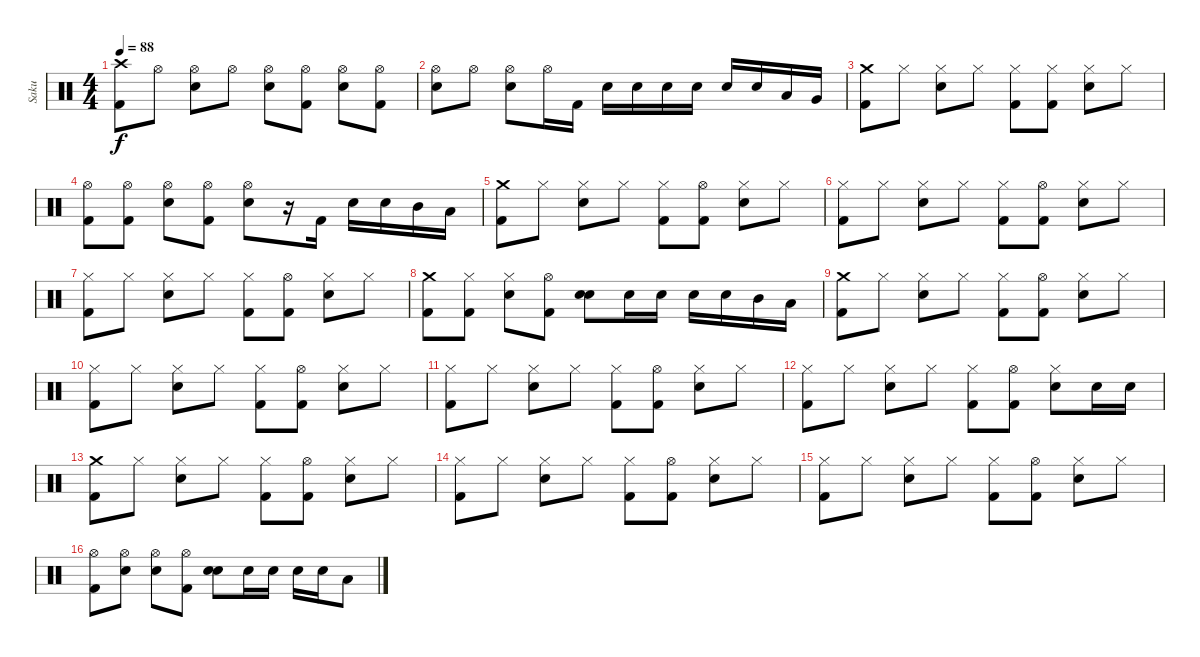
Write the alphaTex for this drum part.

\track ("Saku" "Saku") {instrument percussion}
\staff {score}
\articulation defaults
\ts (4 4)
\tempo 88
\clef neutral
\ks c
("Crash high (hit)" "Kick (hit) 2").8{dy f} "Hi-Hat (open)".8 ("Hi-Hat (open)" "Electric Snare (hit)").8 "Hi-Hat (open)".8 ("Hi-Hat (open)" "Electric Snare (hit)").8 ("Hi-Hat (open)" "Kick (hit) 2").8 ("Hi-Hat (open)" "Electric Snare (hit)").8 ("Hi-Hat (open)" "Kick (hit) 2").8 |
("Hi-Hat (open)" "Electric Snare (hit)").8 "Hi-Hat (open)".8 ("Hi-Hat (open)" "Electric Snare (hit)").8 "Hi-Hat (open)".16 "Kick (hit) 2".16 "Electric Snare (hit)".16 "Electric Snare (hit)".16 "Electric Snare (hit)".16 "Electric Snare (hit)".16 "Electric Snare (hit)".16 "Electric Snare (hit)".16 "Low Tom (hit)".16 "Very Low Tom (hit)".16 |
("Crash medium (hit)" "Kick (hit) 2").8 "Hi-Hat (closed)".8 ("Hi-Hat (closed)" "Electric Snare (hit)").8 "Hi-Hat (closed)".8 ("Hi-Hat (closed)" "Kick (hit) 2").8 ("Hi-Hat (closed)" "Kick (hit) 2").8 ("Hi-Hat (closed)" "Electric Snare (hit)").8 "Hi-Hat (closed)".8 |
("Hi-Hat (open)" "Kick (hit) 2").8 ("Hi-Hat (open)" "Kick (hit) 2").8 ("Hi-Hat (open)" "Electric Snare (hit)").8 ("Hi-Hat (open)" "Kick (hit) 2").8 ("Hi-Hat (open)" "Electric Snare (hit)").8 r.16 "Kick (hit) 2".16 "Electric Snare (hit)".16 "Electric Snare (hit)".16 "Mid Tom (hit)".16 "Low Tom (hit)".16 |
("Crash medium (hit)" "Kick (hit) 2").8 "Hi-Hat (closed)".8 ("Hi-Hat (closed)" "Electric Snare (hit)").8 "Hi-Hat (closed)".8 ("Hi-Hat (closed)" "Kick (hit) 2").8 ("Hi-Hat (open)" "Kick (hit) 2").8 ("Hi-Hat (closed)" "Electric Snare (hit)").8 "Hi-Hat (closed)".8 |
("Hi-Hat (closed)" "Kick (hit) 2").8 "Hi-Hat (closed)".8 ("Hi-Hat (closed)" "Electric Snare (hit)").8 "Hi-Hat (closed)".8 ("Hi-Hat (closed)" "Kick (hit) 2").8 ("Hi-Hat (open)" "Kick (hit) 2").8 ("Hi-Hat (closed)" "Electric Snare (hit)").8 "Hi-Hat (closed)".8 |
("Hi-Hat (closed)" "Kick (hit) 2").8 "Hi-Hat (closed)".8 ("Hi-Hat (closed)" "Electric Snare (hit)").8 "Hi-Hat (closed)".8 ("Hi-Hat (closed)" "Kick (hit) 2").8 ("Hi-Hat (open)" "Kick (hit) 2").8 ("Hi-Hat (closed)" "Electric Snare (hit)").8 "Hi-Hat (closed)".8 |
("Crash medium (hit)" "Kick (hit) 2").8 ("Hi-Hat (closed)" "Kick (hit) 2").8 ("Hi-Hat (closed)" "Electric Snare (hit)").8 ("Hi-Hat (open)" "Kick (hit) 2").8 ("Electric Snare (hit)" "Electric Snare (hit)").8{bu 60} "Electric Snare (hit)".16 "Electric Snare (hit)".16 "Electric Snare (hit)".16 "Electric Snare (hit)".16 "Mid Tom (hit)".16 "Low Tom (hit)".16 |
("Crash medium (hit)" "Kick (hit) 2").8 "Hi-Hat (closed)".8 ("Hi-Hat (closed)" "Electric Snare (hit)").8 "Hi-Hat (closed)".8 ("Hi-Hat (closed)" "Kick (hit) 2").8 ("Hi-Hat (open)" "Kick (hit) 2").8 ("Hi-Hat (closed)" "Electric Snare (hit)").8 "Hi-Hat (closed)".8 |
("Hi-Hat (closed)" "Kick (hit) 2").8 "Hi-Hat (closed)".8 ("Hi-Hat (closed)" "Electric Snare (hit)").8 "Hi-Hat (closed)".8 ("Hi-Hat (closed)" "Kick (hit) 2").8 ("Hi-Hat (open)" "Kick (hit) 2").8 ("Hi-Hat (closed)" "Electric Snare (hit)").8 "Hi-Hat (closed)".8 |
("Hi-Hat (closed)" "Kick (hit) 2").8 "Hi-Hat (closed)".8 ("Hi-Hat (closed)" "Electric Snare (hit)").8 "Hi-Hat (closed)".8 ("Hi-Hat (closed)" "Kick (hit) 2").8 ("Hi-Hat (open)" "Kick (hit) 2").8 ("Hi-Hat (closed)" "Electric Snare (hit)").8 "Hi-Hat (closed)".8 |
("Hi-Hat (closed)" "Kick (hit) 2").8 "Hi-Hat (closed)".8 ("Hi-Hat (closed)" "Electric Snare (hit)").8 "Hi-Hat (closed)".8 ("Hi-Hat (closed)" "Kick (hit) 2").8 ("Hi-Hat (open)" "Kick (hit) 2").8 ("Hi-Hat (closed)" "Electric Snare (hit)").8 "Electric Snare (hit)".16 "Electric Snare (hit)".16 |
("Crash medium (hit)" "Kick (hit) 2").8 "Hi-Hat (closed)".8 ("Hi-Hat (closed)" "Electric Snare (hit)").8 "Hi-Hat (closed)".8 ("Hi-Hat (closed)" "Kick (hit) 2").8 ("Hi-Hat (open)" "Kick (hit) 2").8 ("Hi-Hat (closed)" "Electric Snare (hit)").8 "Hi-Hat (closed)".8 |
("Hi-Hat (closed)" "Kick (hit) 2").8 "Hi-Hat (closed)".8 ("Hi-Hat (closed)" "Electric Snare (hit)").8 "Hi-Hat (closed)".8 ("Hi-Hat (closed)" "Kick (hit) 2").8 ("Hi-Hat (open)" "Kick (hit) 2").8 ("Hi-Hat (closed)" "Electric Snare (hit)").8 "Hi-Hat (closed)".8 |
("Hi-Hat (closed)" "Kick (hit) 2").8 "Hi-Hat (closed)".8 ("Hi-Hat (closed)" "Electric Snare (hit)").8 "Hi-Hat (closed)".8 ("Hi-Hat (closed)" "Kick (hit) 2").8 ("Hi-Hat (open)" "Kick (hit) 2").8 ("Hi-Hat (closed)" "Electric Snare (hit)").8 "Hi-Hat (closed)".8 |
("Hi-Hat (open)" "Kick (hit) 2").8 ("Hi-Hat (open)" "Electric Snare (hit)").8 ("Hi-Hat (open)" "Electric Snare (hit)").8 ("Hi-Hat (open)" "Kick (hit) 2").8 ("Electric Snare (hit)" "Electric Snare (hit)").8{bu 60} "Electric Snare (hit)".16 "Electric Snare (hit)".16 "Electric Snare (hit)".16 "Electric Snare (hit)".16 "Low Tom (hit)".8
